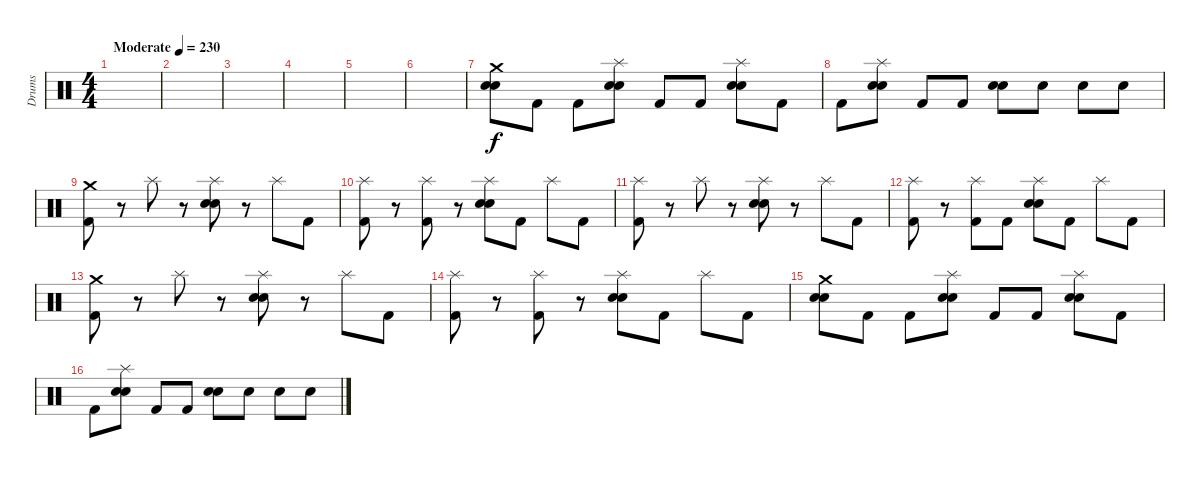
\track ("Drums" "Drums") {instrument percussion}
\staff {score}
\articulation defaults
\ts (4 4)
\tempo (230 "Moderate")
\clef neutral
\ks c
|
|
|
|
|
|
("Crash medium (hit)" "Electric Snare (hit)" "Snare (hit) 2").8 "Kick (hit) 2".8 "Kick (hit) 2".8 ("Splash (hit)" "Electric Snare (hit)" "Snare (hit) 2").8 "Kick (hit) 2".8 "Kick (hit) 2".8 ("Splash (hit)" "Electric Snare (hit)" "Snare (hit) 2").8 "Kick (hit) 2".8 |
"Kick (hit) 2".8 ("Splash (hit)" "Electric Snare (hit)" "Snare (hit) 2").8 "Kick (hit) 2".8 "Kick (hit) 2".8 ("Electric Snare (hit)" "Snare (hit) 2").8 "Electric Snare (hit)".8 "Electric Snare (hit)".8 "Electric Snare (hit)".8 |
("Crash medium (hit)" "Kick (hit) 2").8 r.8 "Splash (hit)".8 r.8 ("Splash (hit)" "Electric Snare (hit)" "Snare (hit) 2").8 r.8 "Splash (hit)".8 "Kick (hit) 2".8 |
("Splash (hit)" "Kick (hit) 2").8 r.8 ("Splash (hit)" "Kick (hit) 2").8 r.8 ("Splash (hit)" "Electric Snare (hit)" "Snare (hit) 2").8 "Kick (hit) 2".8 "Splash (hit)".8 "Kick (hit) 2".8 |
("Splash (hit)" "Kick (hit) 2").8 r.8 "Splash (hit)".8 r.8 ("Splash (hit)" "Electric Snare (hit)" "Snare (hit) 2").8 r.8 "Splash (hit)".8 "Kick (hit) 2".8 |
("Splash (hit)" "Kick (hit) 2").8 r.8 ("Splash (hit)" "Kick (hit) 2").8 "Kick (hit) 2".8 ("Splash (hit)" "Electric Snare (hit)" "Snare (hit) 2").8 "Kick (hit) 2".8 "Splash (hit)".8 "Kick (hit) 2".8 |
("Crash medium (hit)" "Kick (hit) 2").8 r.8 "Splash (hit)".8 r.8 ("Splash (hit)" "Electric Snare (hit)" "Snare (hit) 2").8 r.8 "Splash (hit)".8 "Kick (hit) 2".8 |
("Splash (hit)" "Kick (hit) 2").8 r.8 ("Splash (hit)" "Kick (hit) 2").8 r.8 ("Splash (hit)" "Electric Snare (hit)" "Snare (hit) 2").8 "Kick (hit) 2".8 "Splash (hit)".8 "Kick (hit) 2".8 |
("Crash medium (hit)" "Electric Snare (hit)" "Snare (hit) 2").8 "Kick (hit) 2".8 "Kick (hit) 2".8 ("Splash (hit)" "Electric Snare (hit)" "Snare (hit) 2").8 "Kick (hit) 2".8 "Kick (hit) 2".8 ("Splash (hit)" "Electric Snare (hit)" "Snare (hit) 2").8 "Kick (hit) 2".8 |
"Kick (hit) 2".8 ("Splash (hit)" "Electric Snare (hit)" "Snare (hit) 2").8 "Kick (hit) 2".8 "Kick (hit) 2".8 ("Electric Snare (hit)" "Snare (hit) 2").8 "Electric Snare (hit)".8 "Electric Snare (hit)".8 "Electric Snare (hit)".8
